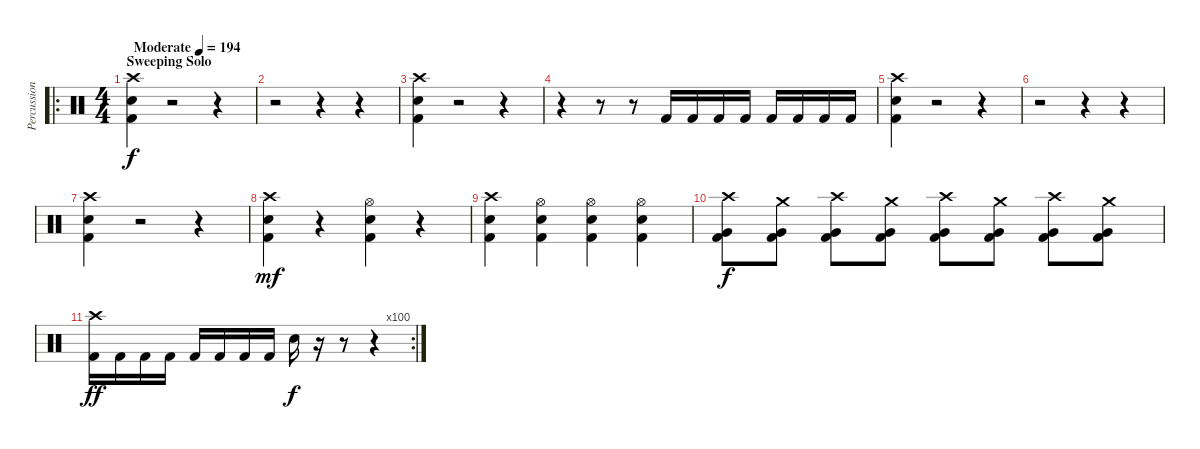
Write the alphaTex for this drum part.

\track ("Percussion" "Percussion") {instrument percussion}
\staff {score}
\articulation defaults
\ro
\ts (4 4)
\section ("" "Sweeping Solo")
\tempo (194 "Moderate")
\clef neutral
\ks c
("Crash high (hit)" "Electric Snare (hit)" "Kick (hit) 2").4{dy f} r.2 r.4 |
r.2 r.4 r.4 |
("Crash high (hit)" "Electric Snare (hit)" "Kick (hit) 2").4 r.2 r.4 |
r.4 r.8 r.8 "Kick (hit) 2".16 "Kick (hit) 2".16 "Kick (hit) 2".16 "Kick (hit) 2".16 "Kick (hit) 2".16 "Kick (hit) 2".16 "Kick (hit) 2".16 "Kick (hit) 2".16 |
("Crash high (hit)" "Electric Snare (hit)" "Kick (hit) 2").4 r.2 r.4 |
r.2 r.4 r.4 |
("Crash high (hit)" "Electric Snare (hit)" "Kick (hit) 2").4 r.2 r.4 |
("Crash high (hit)" "Electric Snare (hit)" "Kick (hit) 2").4{dy mf} r.4 ("Hi-Hat (open)" "Electric Snare (hit)" "Kick (hit) 2").4 r.4 |
("Crash high (hit)" "Electric Snare (hit)" "Kick (hit) 2").4 ("Hi-Hat (open)" "Electric Snare (hit)" "Kick (hit) 2").4 ("Hi-Hat (open)" "Electric Snare (hit)" "Kick (hit) 2").4 ("Hi-Hat (open)" "Electric Snare (hit)" "Kick (hit) 2").4 |
("Crash high (hit)" "Very Low Tom (hit)" "Kick (hit) 2").8{dy f} ("Crash medium (hit)" "Very Low Tom (hit)" "Kick (hit) 2").8 ("Crash high (hit)" "Very Low Tom (hit)" "Kick (hit) 2").8 ("Crash medium (hit)" "Very Low Tom (hit)" "Kick (hit) 2").8 ("Crash high (hit)" "Very Low Tom (hit)" "Kick (hit) 2").8 ("Crash medium (hit)" "Very Low Tom (hit)" "Kick (hit) 2").8 ("Crash high (hit)" "Very Low Tom (hit)" "Kick (hit) 2").8 ("Crash medium (hit)" "Very Low Tom (hit)" "Kick (hit) 2").8 |
\rc 100
("Crash high (hit)" "Kick (hit) 2").16{dy ff} "Kick (hit) 2".16 "Kick (hit) 2".16 "Kick (hit) 2".16 "Kick (hit) 2".16 "Kick (hit) 2".16 "Kick (hit) 2".16 "Kick (hit) 2".16 "Electric Snare (hit)".16{dy f} r.16 r.8 r.4
